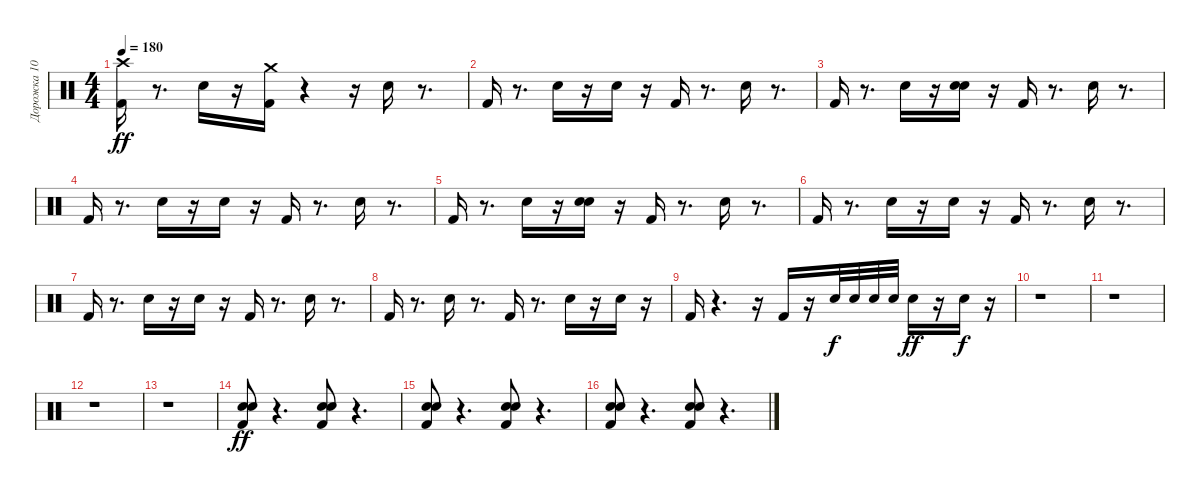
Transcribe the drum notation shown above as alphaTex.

\track ("Дорожка 10" "Дорожка 10") {instrument percussion}
\staff {score}
\articulation defaults
\ts (4 4)
\tempo 180
\clef neutral
\ks c
("Crash high (hit)" "Kick (hit) 2").16{dy ff} r.8{d} "Electric Snare (hit)".16 r.16 ("Crash medium (hit)" "Kick (hit) 2").16 r.4 r.16 "Electric Snare (hit)".16 r.8{d} |
"Kick (hit) 2".16 r.8{d} "Electric Snare (hit)".16 r.16 "Electric Snare (hit)".16 r.16 "Kick (hit) 2".16 r.8{d} "Electric Snare (hit)".16 r.8{d} |
"Kick (hit) 2".16 r.8{d} "Electric Snare (hit)".16 r.16 ("Electric Snare (hit)" "Hand Clap (hit)").16 r.16 "Kick (hit) 2".16 r.8{d} "Electric Snare (hit)".16 r.8{d} |
"Kick (hit) 2".16 r.8{d} "Electric Snare (hit)".16 r.16 "Electric Snare (hit)".16 r.16 "Kick (hit) 2".16 r.8{d} "Electric Snare (hit)".16 r.8{d} |
"Kick (hit) 2".16 r.8{d} "Electric Snare (hit)".16 r.16 ("Hand Clap (hit)" "Electric Snare (hit)").16 r.16 "Kick (hit) 2".16 r.8{d} "Electric Snare (hit)".16 r.8{d} |
"Kick (hit) 2".16 r.8{d} "Electric Snare (hit)".16 r.16 "Electric Snare (hit)".16 r.16 "Kick (hit) 2".16 r.8{d} "Electric Snare (hit)".16 r.8{d} |
"Kick (hit) 2".16 r.8{d} "Electric Snare (hit)".16 r.16 "Electric Snare (hit)".16 r.16 "Kick (hit) 2".16 r.8{d} "Electric Snare (hit)".16 r.8{d} |
"Kick (hit) 2".16 r.8{d} "Electric Snare (hit)".16 r.8{d} "Kick (hit) 2".16 r.8{d} "Electric Snare (hit)".16 r.16 "Electric Snare (hit)".16 r.16 |
"Kick (hit) 2".16 r.4{d} r.16 "Kick (hit) 2".16 r.16 "Electric Snare (hit)".32{dy f} "Electric Snare (hit)".32 "Electric Snare (hit)".32 "Electric Snare (hit)".32 "Electric Snare (hit)".16{dy ff} r.16 "Electric Snare (hit)".16{dy f} r.16 |
r.1 |
r.1 |
r.1 |
r.1 |
("Snare (hit)" "Snare (hit)" "Kick (hit) 2").8{dy ff} r.4{d} ("Snare (hit)" "Snare (hit)" "Kick (hit) 2").8 r.4{d} |
("Snare (hit)" "Snare (hit)" "Kick (hit) 2").8 r.4{d} ("Snare (hit)" "Snare (hit)" "Kick (hit) 2").8 r.4{d} |
("Snare (hit)" "Snare (hit)" "Kick (hit) 2").8 r.4{d} ("Snare (hit)" "Snare (hit)" "Kick (hit) 2").8 r.4{d}
